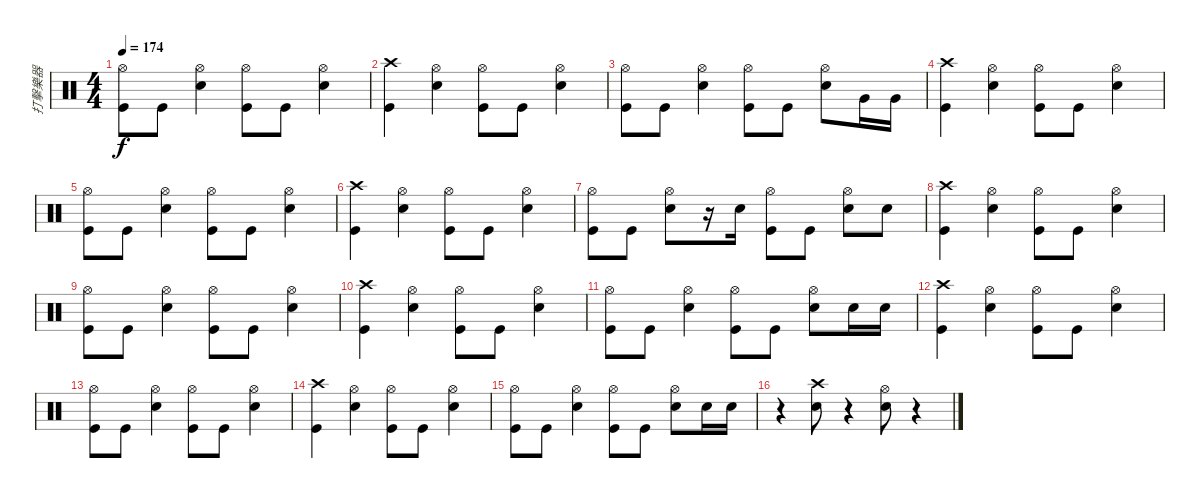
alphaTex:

\track ("打擊樂器" "打擊樂器") {instrument percussion}
\staff {score}
\articulation defaults
\ts (4 4)
\tempo 174
\clef neutral
\ks c
("Hi-Hat (open)" "Kick (hit)").8{dy f} "Kick (hit)".8 ("Hi-Hat (open)" "Snare (hit) 2").4 ("Hi-Hat (open)" "Kick (hit)").8 "Kick (hit)".8 ("Hi-Hat (open)" "Snare (hit) 2").4 |
("Crash high (hit)" "Kick (hit)").4 ("Hi-Hat (open)" "Snare (hit) 2").4 ("Kick (hit)" "Hi-Hat (open)").8 "Kick (hit)".8 ("Hi-Hat (open)" "Snare (hit) 2").4 |
("Hi-Hat (open)" "Kick (hit)").8 "Kick (hit)".8 ("Hi-Hat (open)" "Snare (hit) 2").4 ("Hi-Hat (open)" "Kick (hit)").8 "Kick (hit)".8 ("Hi-Hat (open)" "Snare (hit) 2").8 "Very Low Tom (hit)".16 "Very Low Tom (hit)".16 |
("Crash high (hit)" "Kick (hit)").4 ("Hi-Hat (open)" "Snare (hit) 2").4 ("Kick (hit)" "Hi-Hat (open)").8 "Kick (hit)".8 ("Hi-Hat (open)" "Snare (hit) 2").4 |
("Hi-Hat (open)" "Kick (hit)").8 "Kick (hit)".8 ("Hi-Hat (open)" "Snare (hit) 2").4 ("Hi-Hat (open)" "Kick (hit)").8 "Kick (hit)".8 ("Hi-Hat (open)" "Snare (hit) 2").4 |
("Crash high (hit)" "Kick (hit)").4 ("Hi-Hat (open)" "Snare (hit) 2").4 ("Kick (hit)" "Hi-Hat (open)").8 "Kick (hit)".8 ("Hi-Hat (open)" "Snare (hit) 2").4 |
("Hi-Hat (open)" "Kick (hit)").8 "Kick (hit)".8 ("Hi-Hat (open)" "Snare (hit) 2").8 r.16 "Snare (hit) 2".16 ("Hi-Hat (open)" "Kick (hit)").8 "Kick (hit)".8 ("Hi-Hat (open)" "Snare (hit) 2").8 "Snare (hit) 2".8 |
("Crash high (hit)" "Kick (hit)").4 ("Hi-Hat (open)" "Snare (hit) 2").4 ("Kick (hit)" "Hi-Hat (open)").8 "Kick (hit)".8 ("Hi-Hat (open)" "Snare (hit) 2").4 |
("Hi-Hat (open)" "Kick (hit)").8 "Kick (hit)".8 ("Hi-Hat (open)" "Snare (hit) 2").4 ("Hi-Hat (open)" "Kick (hit)").8 "Kick (hit)".8 ("Hi-Hat (open)" "Snare (hit) 2").4 |
("Crash high (hit)" "Kick (hit)").4 ("Hi-Hat (open)" "Snare (hit) 2").4 ("Kick (hit)" "Hi-Hat (open)").8 "Kick (hit)".8 ("Hi-Hat (open)" "Snare (hit) 2").4 |
("Hi-Hat (open)" "Kick (hit)").8 "Kick (hit)".8 ("Hi-Hat (open)" "Snare (hit) 2").4 ("Hi-Hat (open)" "Kick (hit)").8 "Kick (hit)".8 ("Hi-Hat (open)" "Snare (hit) 2").8 "Snare (hit) 2".16 "Snare (hit) 2".16 |
("Crash high (hit)" "Kick (hit)").4 ("Hi-Hat (open)" "Snare (hit) 2").4 ("Kick (hit)" "Hi-Hat (open)").8 "Kick (hit)".8 ("Hi-Hat (open)" "Snare (hit) 2").4 |
("Hi-Hat (open)" "Kick (hit)").8 "Kick (hit)".8 ("Hi-Hat (open)" "Snare (hit) 2").4 ("Hi-Hat (open)" "Kick (hit)").8 "Kick (hit)".8 ("Hi-Hat (open)" "Snare (hit) 2").4 |
("Crash high (hit)" "Kick (hit)").4 ("Hi-Hat (open)" "Snare (hit) 2").4 ("Kick (hit)" "Hi-Hat (open)").8 "Kick (hit)".8 ("Hi-Hat (open)" "Snare (hit) 2").4 |
("Hi-Hat (open)" "Kick (hit)").8 "Kick (hit)".8 ("Hi-Hat (open)" "Snare (hit) 2").4 ("Hi-Hat (open)" "Kick (hit)").8 "Kick (hit)".8 ("Hi-Hat (open)" "Snare (hit) 2").8 "Snare (hit) 2".16 "Snare (hit) 2".16 |
r.4 ("Snare (hit) 2" "Crash high (hit)").8 r.4 ("Snare (hit) 2" "Hi-Hat (open)").8 r.4
